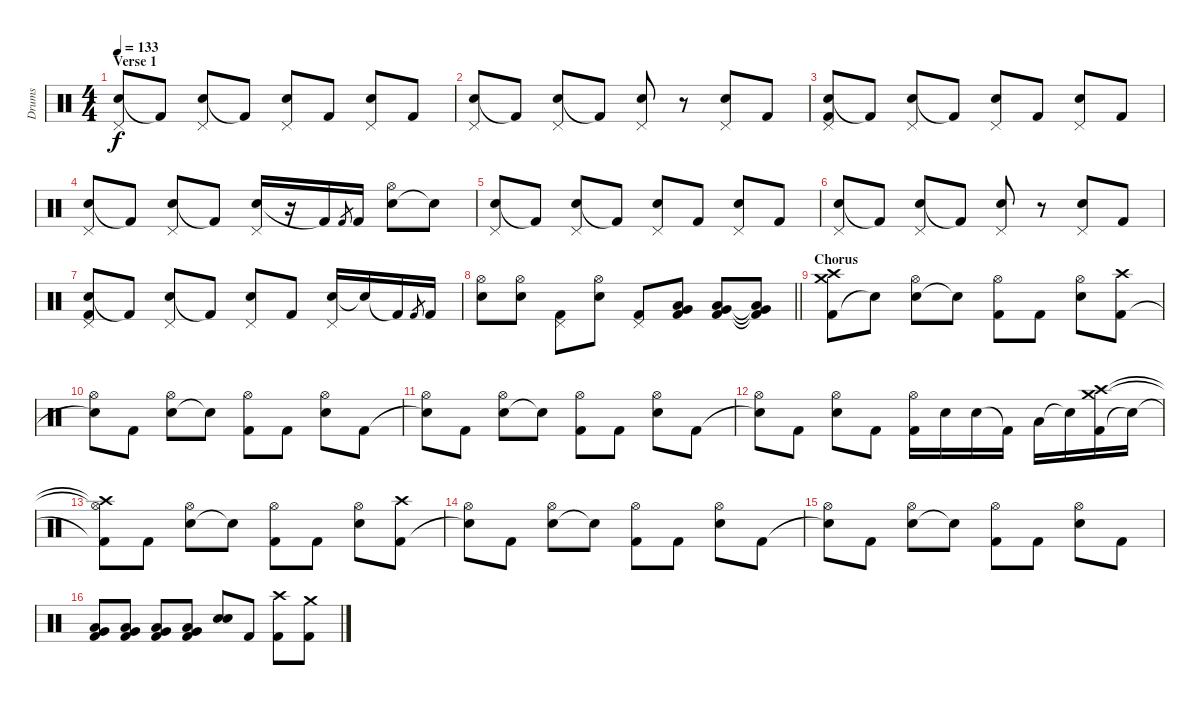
\track ("Drums" "Drums") {instrument percussion}
\staff {score}
\articulation defaults
\ts (4 4)
\section ("" "Verse 1")
\tempo 133
\clef neutral
\ks c
("Electric Snare (hit)" "Pedal Hi-Hat (hit)").8{dy f} "Kick (hit) 2"{t}.8 ("Electric Snare (hit)" "Pedal Hi-Hat (hit)").8 "Kick (hit) 2"{t}.8 ("Electric Snare (hit)" "Pedal Hi-Hat (hit)").8 "Kick (hit) 2".8 ("Electric Snare (hit)" "Pedal Hi-Hat (hit)").8 "Kick (hit) 2".8 |
("Electric Snare (hit)" "Pedal Hi-Hat (hit)").8 "Kick (hit) 2"{t}.8 ("Electric Snare (hit)" "Pedal Hi-Hat (hit)").8 "Kick (hit) 2"{t}.8 ("Electric Snare (hit)" "Pedal Hi-Hat (hit)").8 r.8 ("Electric Snare (hit)" "Pedal Hi-Hat (hit)").8 "Kick (hit) 2".8 |
("Electric Snare (hit)" "Pedal Hi-Hat (hit)" "Kick (hit) 2").8 "Kick (hit) 2"{t}.8 ("Electric Snare (hit)" "Pedal Hi-Hat (hit)").8 "Kick (hit) 2"{t}.8 ("Electric Snare (hit)" "Pedal Hi-Hat (hit)").8 "Kick (hit) 2".8 ("Electric Snare (hit)" "Pedal Hi-Hat (hit)").8 "Kick (hit) 2".8 |
("Electric Snare (hit)" "Pedal Hi-Hat (hit)").8 "Kick (hit) 2"{t}.8 ("Electric Snare (hit)" "Pedal Hi-Hat (hit)").8 "Kick (hit) 2"{t}.8 ("Electric Snare (hit)" "Pedal Hi-Hat (hit)").16 r.16 "Kick (hit) 2"{t}.16 "Kick (hit) 2".8{gr} "Kick (hit) 2".16 ("Electric Snare (hit)" "Hi-Hat (open)").8 "Snare (hit)"{t}.8 |
("Electric Snare (hit)" "Pedal Hi-Hat (hit)").8 "Kick (hit) 2"{t}.8 ("Electric Snare (hit)" "Pedal Hi-Hat (hit)").8 "Kick (hit) 2"{t}.8 ("Electric Snare (hit)" "Pedal Hi-Hat (hit)").8 "Kick (hit) 2".8 ("Electric Snare (hit)" "Pedal Hi-Hat (hit)").8 "Kick (hit) 2".8 |
("Electric Snare (hit)" "Pedal Hi-Hat (hit)").8 "Kick (hit) 2"{t}.8 ("Electric Snare (hit)" "Pedal Hi-Hat (hit)").8 "Kick (hit) 2"{t}.8 ("Electric Snare (hit)" "Pedal Hi-Hat (hit)").8 r.8 ("Electric Snare (hit)" "Pedal Hi-Hat (hit)").8 "Kick (hit) 2".8 |
("Electric Snare (hit)" "Pedal Hi-Hat (hit)" "Kick (hit) 2").8 "Kick (hit) 2"{t}.8 ("Electric Snare (hit)" "Pedal Hi-Hat (hit)").8 "Kick (hit) 2"{t}.8 ("Electric Snare (hit)" "Pedal Hi-Hat (hit)").8 "Kick (hit) 2".8 ("Electric Snare (hit)" "Pedal Hi-Hat (hit)").16 "Snare (hit)"{t}.16 "Kick (hit) 2"{t}.16 "Kick (hit) 2".8{gr} "Kick (hit) 2".16 |
\barLineRight lightlight
("Electric Snare (hit)" "Hi-Hat (open)").8 ("Electric Snare (hit)" "Hi-Hat (open)").8 ("Kick (hit) 2" "Pedal Hi-Hat (hit)").8 ("Electric Snare (hit)" "Hi-Hat (open)").8 ("Kick (hit) 2" "Pedal Hi-Hat (hit)").8 ("Very Low Tom (hit)" "Low Tom (hit)" "Kick (hit) 2").8 ("Very Low Tom (hit)" "Low Tom (hit)" "Kick (hit) 2").8 ("Very Low Tom (hit)"{t} "Low Tom (hit)"{t} "Kick (hit) 2"{t}).8 |
\section ("" "Chorus")
("Kick (hit) 2" "Crash medium (hit)" "Crash high (hit)").8 "Snare (hit)"{t}.8 ("Electric Snare (hit)" "Hi-Hat (open)").8 "Snare (hit)"{t}.8 ("Kick (hit) 2" "Hi-Hat (open)").8 "Kick (hit) 2".8 ("Electric Snare (hit)" "Hi-Hat (open)").8 ("Kick (hit) 2" "Crash high (hit)").8 |
("Snare (hit)"{t} "Hi-Hat (open)").8 "Kick (hit) 2".8 ("Electric Snare (hit)" "Hi-Hat (open)").8 "Snare (hit)"{t}.8 ("Kick (hit) 2" "Hi-Hat (open)").8 "Kick (hit) 2".8 ("Electric Snare (hit)" "Hi-Hat (open)").8 "Kick (hit) 2".8 |
("Snare (hit)"{t} "Hi-Hat (open)").8 "Kick (hit) 2".8 ("Electric Snare (hit)" "Hi-Hat (open)").8 "Snare (hit)"{t}.8 ("Kick (hit) 2" "Hi-Hat (open)").8 "Kick (hit) 2".8 ("Electric Snare (hit)" "Hi-Hat (open)").8 "Kick (hit) 2".8 |
("Snare (hit)"{t} "Hi-Hat (open)").8 "Kick (hit) 2".8 ("Electric Snare (hit)" "Hi-Hat (open)").8 "Kick (hit) 2".8 ("Kick (hit) 2" "Hi-Hat (open)").16 "Electric Snare (hit)".16 "Electric Snare (hit)".16 "Kick (hit) 2"{t}.16 "Low Tom (hit)".16 "Snare (hit)"{t}.16 ("Kick (hit) 2" "Crash medium (hit)" "Crash high (hit)").16 "Snare (hit)"{t}.16 |
("Kick (hit) 2"{t} "Hi-Hat (open)"{t} "Crash high (hit)"{t}).8 "Kick (hit) 2".8 ("Electric Snare (hit)" "Hi-Hat (open)").8 "Snare (hit)"{t}.8 ("Kick (hit) 2" "Hi-Hat (open)").8 "Kick (hit) 2".8 ("Electric Snare (hit)" "Hi-Hat (open)").8 ("Kick (hit) 2" "Crash high (hit)").8 |
("Snare (hit)"{t} "Hi-Hat (open)").8 "Kick (hit) 2".8 ("Electric Snare (hit)" "Hi-Hat (open)").8 "Snare (hit)"{t}.8 ("Kick (hit) 2" "Hi-Hat (open)").8 "Kick (hit) 2".8 ("Electric Snare (hit)" "Hi-Hat (open)").8 "Kick (hit) 2".8 |
("Snare (hit)"{t} "Hi-Hat (open)").8 "Kick (hit) 2".8 ("Electric Snare (hit)" "Hi-Hat (open)").8 "Snare (hit)"{t}.8 ("Kick (hit) 2" "Hi-Hat (open)").8 "Kick (hit) 2".8 ("Electric Snare (hit)" "Hi-Hat (open)").8 "Kick (hit) 2".8 |
("Very Low Tom (hit)" "Low Tom (hit)" "Kick (hit) 2").8 ("Very Low Tom (hit)" "Low Tom (hit)" "Kick (hit) 2").8 ("Very Low Tom (hit)" "Low Tom (hit)" "Kick (hit) 2").8 ("Very Low Tom (hit)" "Low Tom (hit)" "Kick (hit) 2").8 ("Electric Snare (hit)" "Electric Snare (hit)").8 "Kick (hit) 2".8 ("Kick (hit) 2" "Crash high (hit)").8 ("Kick (hit) 2" "Crash medium (hit)").8
